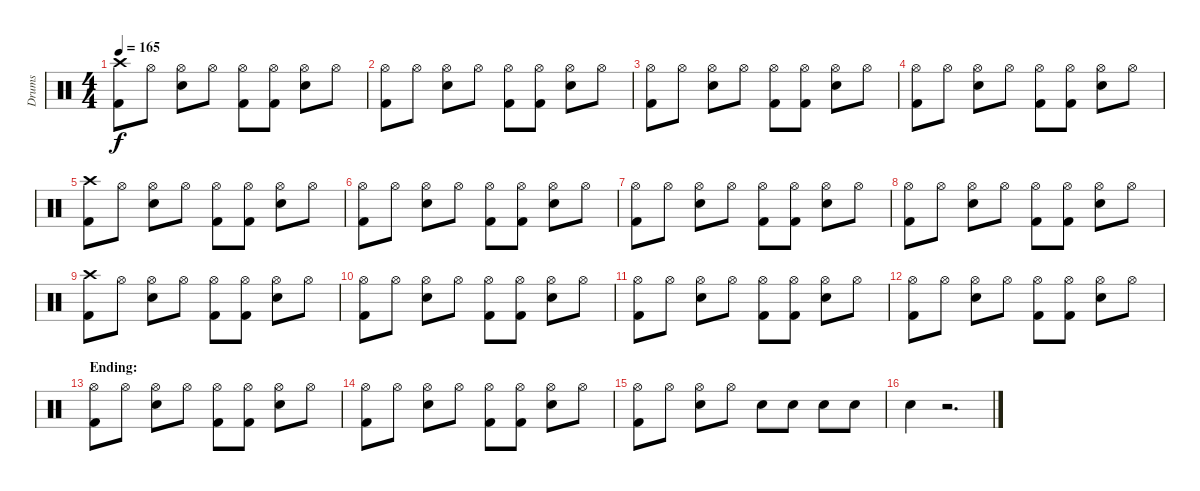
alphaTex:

\track ("Drums" "Drums") {instrument percussion}
\staff {score}
\articulation defaults
\ts (4 4)
\tempo 165
\clef neutral
\ks c
("Crash high (hit)" "Kick (hit) 2").8{dy f} "Hi-Hat (open)".8 ("Hi-Hat (open)" "Electric Snare (hit)").8 "Hi-Hat (open)".8 ("Hi-Hat (open)" "Kick (hit) 2").8 ("Hi-Hat (open)" "Kick (hit) 2").8 ("Hi-Hat (open)" "Electric Snare (hit)").8 "Hi-Hat (open)".8 |
("Hi-Hat (open)" "Kick (hit) 2").8 "Hi-Hat (open)".8 ("Hi-Hat (open)" "Electric Snare (hit)").8 "Hi-Hat (open)".8 ("Hi-Hat (open)" "Kick (hit) 2").8 ("Hi-Hat (open)" "Kick (hit) 2").8 ("Hi-Hat (open)" "Electric Snare (hit)").8 "Hi-Hat (open)".8 |
("Hi-Hat (open)" "Kick (hit) 2").8 "Hi-Hat (open)".8 ("Hi-Hat (open)" "Electric Snare (hit)").8 "Hi-Hat (open)".8 ("Hi-Hat (open)" "Kick (hit) 2").8 ("Hi-Hat (open)" "Kick (hit) 2").8 ("Hi-Hat (open)" "Electric Snare (hit)").8 "Hi-Hat (open)".8 |
("Hi-Hat (open)" "Kick (hit) 2").8 "Hi-Hat (open)".8 ("Hi-Hat (open)" "Electric Snare (hit)").8 "Hi-Hat (open)".8 ("Hi-Hat (open)" "Kick (hit) 2").8 ("Hi-Hat (open)" "Kick (hit) 2").8 ("Hi-Hat (open)" "Electric Snare (hit)").8 "Hi-Hat (open)".8 |
("Crash high (hit)" "Kick (hit) 2").8 "Hi-Hat (open)".8 ("Hi-Hat (open)" "Electric Snare (hit)").8 "Hi-Hat (open)".8 ("Hi-Hat (open)" "Kick (hit) 2").8 ("Hi-Hat (open)" "Kick (hit) 2").8 ("Hi-Hat (open)" "Electric Snare (hit)").8 "Hi-Hat (open)".8 |
("Hi-Hat (open)" "Kick (hit) 2").8 "Hi-Hat (open)".8 ("Hi-Hat (open)" "Electric Snare (hit)").8 "Hi-Hat (open)".8 ("Hi-Hat (open)" "Kick (hit) 2").8 ("Hi-Hat (open)" "Kick (hit) 2").8 ("Hi-Hat (open)" "Electric Snare (hit)").8 "Hi-Hat (open)".8 |
("Hi-Hat (open)" "Kick (hit) 2").8 "Hi-Hat (open)".8 ("Hi-Hat (open)" "Electric Snare (hit)").8 "Hi-Hat (open)".8 ("Hi-Hat (open)" "Kick (hit) 2").8 ("Hi-Hat (open)" "Kick (hit) 2").8 ("Hi-Hat (open)" "Electric Snare (hit)").8 "Hi-Hat (open)".8 |
("Hi-Hat (open)" "Kick (hit) 2").8 "Hi-Hat (open)".8 ("Hi-Hat (open)" "Electric Snare (hit)").8 "Hi-Hat (open)".8 ("Hi-Hat (open)" "Kick (hit) 2").8 ("Hi-Hat (open)" "Kick (hit) 2").8 ("Hi-Hat (open)" "Electric Snare (hit)").8 "Hi-Hat (open)".8 |
("Crash high (hit)" "Kick (hit) 2").8 "Hi-Hat (open)".8 ("Hi-Hat (open)" "Electric Snare (hit)").8 "Hi-Hat (open)".8 ("Hi-Hat (open)" "Kick (hit) 2").8 ("Hi-Hat (open)" "Kick (hit) 2").8 ("Hi-Hat (open)" "Electric Snare (hit)").8 "Hi-Hat (open)".8 |
("Hi-Hat (open)" "Kick (hit) 2").8 "Hi-Hat (open)".8 ("Hi-Hat (open)" "Electric Snare (hit)").8 "Hi-Hat (open)".8 ("Hi-Hat (open)" "Kick (hit) 2").8 ("Hi-Hat (open)" "Kick (hit) 2").8 ("Hi-Hat (open)" "Electric Snare (hit)").8 "Hi-Hat (open)".8 |
("Hi-Hat (open)" "Kick (hit) 2").8 "Hi-Hat (open)".8 ("Hi-Hat (open)" "Electric Snare (hit)").8 "Hi-Hat (open)".8 ("Hi-Hat (open)" "Kick (hit) 2").8 ("Hi-Hat (open)" "Kick (hit) 2").8 ("Hi-Hat (open)" "Electric Snare (hit)").8 "Hi-Hat (open)".8 |
("Hi-Hat (open)" "Kick (hit) 2").8 "Hi-Hat (open)".8 ("Hi-Hat (open)" "Electric Snare (hit)").8 "Hi-Hat (open)".8 ("Hi-Hat (open)" "Kick (hit) 2").8 ("Hi-Hat (open)" "Kick (hit) 2").8 ("Hi-Hat (open)" "Electric Snare (hit)").8 "Hi-Hat (open)".8 |
\section ("" "Ending:")
("Hi-Hat (open)" "Kick (hit) 2").8 "Hi-Hat (open)".8 ("Hi-Hat (open)" "Electric Snare (hit)").8 "Hi-Hat (open)".8 ("Hi-Hat (open)" "Kick (hit) 2").8 ("Hi-Hat (open)" "Kick (hit) 2").8 ("Hi-Hat (open)" "Electric Snare (hit)").8 "Hi-Hat (open)".8 |
("Hi-Hat (open)" "Kick (hit) 2").8 "Hi-Hat (open)".8 ("Hi-Hat (open)" "Electric Snare (hit)").8 "Hi-Hat (open)".8 ("Hi-Hat (open)" "Kick (hit) 2").8 ("Hi-Hat (open)" "Kick (hit) 2").8 ("Hi-Hat (open)" "Electric Snare (hit)").8 "Hi-Hat (open)".8 |
("Hi-Hat (open)" "Kick (hit) 2").8 "Hi-Hat (open)".8 ("Hi-Hat (open)" "Electric Snare (hit)").8 "Hi-Hat (open)".8 "Electric Snare (hit)".8 "Electric Snare (hit)".8 "Electric Snare (hit)".8 "Electric Snare (hit)".8 |
"Electric Snare (hit)".4 r.2{d}
